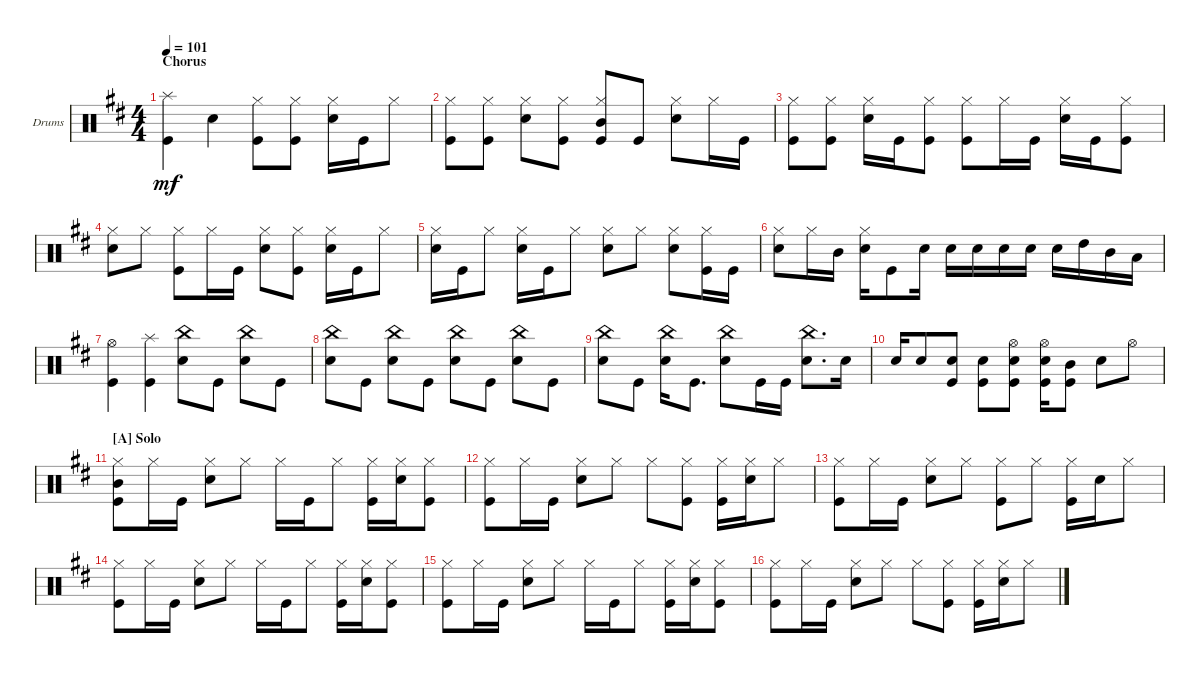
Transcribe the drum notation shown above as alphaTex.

\bracketExtendMode groupsimilarinstruments
\firstSystemTrackNameOrientation horizontal
\otherSystemsTrackNameOrientation horizontal
\track ("Drumkit" "Drums") {instrument percussion}
\staff {score}
\articulation defaults
\ts (4 4)
\section ("" "Chorus")
\tempo 101
\clef neutral
\scale
0.333333
\ks d
("Splash (hit)" "Kick (hit)").4{dy mf} "Snare (hit) 2".4 ("Kick (hit)" "Hi-Hat (closed)").8 ("Kick (hit)" "Hi-Hat (closed)").8 ("Snare (hit) 2" "Hi-Hat (closed)").16 "Kick (hit)".16 "Hi-Hat (closed)".8 |
\scale
0.333333 ("Kick (hit)" "Hi-Hat (closed)").8 ("Kick (hit)" "Hi-Hat (closed)").8 ("Snare (hit) 2" "Hi-Hat (closed)").8 ("Kick (hit)" "Hi-Hat (closed)").8 ("Kick (hit)" "Hi-Hat (closed)" "Mid Tom (hit)").8 "Kick (hit)".8 ("Snare (hit) 2" "Hi-Hat (closed)").8 "Hi-Hat (closed)".16 "Kick (hit)".16 |
\scale
0.333333 ("Kick (hit)" "Hi-Hat (closed)").8 ("Kick (hit)" "Hi-Hat (closed)").8 ("Snare (hit) 2" "Hi-Hat (closed)").16 "Kick (hit)".16 ("Kick (hit)" "Hi-Hat (closed)").8 ("Kick (hit)" "Hi-Hat (closed)").8 "Hi-Hat (closed)".16 "Kick (hit)".16 ("Snare (hit) 2" "Hi-Hat (closed)").16 "Kick (hit)".16 ("Kick (hit)" "Hi-Hat (closed)").8 |
\scale
0.333333 ("Hi-Hat (closed)" "Snare (hit) 2").8 "Hi-Hat (closed)".8 ("Kick (hit)" "Hi-Hat (closed)").8 "Hi-Hat (closed)".16 "Kick (hit)".16 ("Snare (hit) 2" "Hi-Hat (closed)").8 ("Kick (hit)" "Hi-Hat (closed)").8 ("Snare (hit) 2" "Hi-Hat (closed)").16 "Kick (hit)".16 "Hi-Hat (closed)".8 |
\scale
0.333333 ("Snare (hit) 2" "Hi-Hat (closed)").16 "Kick (hit)".16 "Hi-Hat (closed)".8 ("Snare (hit) 2" "Hi-Hat (closed)").16 "Kick (hit)".16 "Hi-Hat (closed)".8 ("Snare (hit) 2" "Hi-Hat (closed)").8 "Hi-Hat (closed)".8 ("Snare (hit) 2" "Hi-Hat (closed)").8 ("Kick (hit)" "Hi-Hat (closed)").16 "Kick (hit)".16 |
\scale
0.333333 ("Snare (hit) 2" "Hi-Hat (closed)").8 "Hi-Hat (closed)".16 "Mid Tom (hit)".16 ("Snare (hit) 2" "Hi-Hat (closed)").16 "Kick (hit)".8 "Snare (hit) 2".16 "Snare (hit) 2".16 "Snare (hit) 2".16 "Snare (hit) 2".16 "Snare (hit) 2".16 "Snare (hit) 2".16 "High Tom (hit)".16 "Mid Tom (hit)".16 "Low Tom (hit)".16 |
\scale
0.333333 ("Hi-Hat (open)" "Kick (hit)").4 ("Splash (hit)" "Kick (hit)").4 ("Snare (hit) 2" "China (hit)").8 "Kick (hit)".8 ("Snare (hit) 2" "China (hit)").8 "Kick (hit)".8 |
\scale
0.333333 ("Snare (hit) 2" "China (hit)").8 "Kick (hit)".8 ("Snare (hit) 2" "China (hit)").8 "Kick (hit)".8 ("Snare (hit) 2" "China (hit)").8 "Kick (hit)".8 ("Snare (hit) 2" "China (hit)").8 "Kick (hit)".8 |
\scale
0.333333 ("Snare (hit) 2" "China (hit)").8 "Kick (hit)".8 ("Snare (hit) 2" "China (hit)").16 "Kick (hit)".8{d} ("Snare (hit) 2" "China (hit)").8 "Kick (hit)".16 "Kick (hit)".16 ("Snare (hit) 2" "China (hit)").8{d} "Snare (hit) 2".16 |
\scale
0.333333 "Snare (hit) 2".16 "Snare (hit) 2".8 ("Snare (hit) 2" "Kick (hit)").8 ("Snare (hit) 2" "Kick (hit)").8 ("Snare (hit) 2" "Kick (hit)" "Hi-Hat (open)").8 ("Kick (hit)" "Snare (hit) 2" "Hi-Hat (open)").16 ("Kick (hit)" "Mid Tom (hit)").8 "Snare (hit) 2".8 "Hi-Hat (open)".8 |
\section ("A" "Solo")
\scale
0.333333 ("Mid Tom (hit)" "Kick (hit)" "Hi-Hat (closed)").8 "Hi-Hat (closed)".16 "Kick (hit)".16 ("Snare (hit) 2" "Hi-Hat (closed)").8 "Hi-Hat (closed)".8 "Hi-Hat (closed)".16 "Kick (hit)".16 "Hi-Hat (closed)".8 ("Kick (hit)" "Hi-Hat (closed)").16 ("Snare (hit) 2" "Hi-Hat (closed)").16 ("Kick (hit)" "Hi-Hat (closed)").8 |
\scale
0.333333 ("Kick (hit)" "Hi-Hat (closed)").8 "Hi-Hat (closed)".16 "Kick (hit)".16 ("Snare (hit) 2" "Hi-Hat (closed)").8 "Hi-Hat (closed)".8 "Hi-Hat (closed)".8 ("Kick (hit)" "Hi-Hat (closed)").8 ("Kick (hit)" "Hi-Hat (closed)").16 ("Snare (hit) 2" "Hi-Hat (closed)").16 "Hi-Hat (closed)".8 |
\scale
0.333333 ("Kick (hit)" "Hi-Hat (closed)").8 "Hi-Hat (closed)".16 "Kick (hit)".16 ("Snare (hit) 2" "Hi-Hat (closed)").8 "Hi-Hat (closed)".8 ("Kick (hit)" "Hi-Hat (closed)").8 "Hi-Hat (closed)".8 ("Kick (hit)" "Hi-Hat (closed)").16 "Snare (hit) 2".16 "Hi-Hat (closed)".8 |
\scale
0.333333 ("Kick (hit)" "Hi-Hat (closed)").8 "Hi-Hat (closed)".16 "Kick (hit)".16 ("Snare (hit) 2" "Hi-Hat (closed)").8 "Hi-Hat (closed)".8 "Hi-Hat (closed)".16 "Kick (hit)".16 "Hi-Hat (closed)".8 ("Kick (hit)" "Hi-Hat (closed)").16 ("Snare (hit) 2" "Hi-Hat (closed)").16 ("Kick (hit)" "Hi-Hat (closed)").8 |
\scale
0.333333 ("Kick (hit)" "Hi-Hat (closed)").8 "Hi-Hat (closed)".16 "Kick (hit)".16 ("Snare (hit) 2" "Hi-Hat (closed)").8 "Hi-Hat (closed)".8 "Hi-Hat (closed)".16 "Kick (hit)".16 "Hi-Hat (closed)".8 ("Kick (hit)" "Hi-Hat (closed)").16 ("Snare (hit) 2" "Hi-Hat (closed)").16 ("Kick (hit)" "Hi-Hat (closed)").8 |
\scale
0.333333 ("Kick (hit)" "Hi-Hat (closed)").8 "Hi-Hat (closed)".16 "Kick (hit)".16 ("Snare (hit) 2" "Hi-Hat (closed)").8 "Hi-Hat (closed)".8 "Hi-Hat (closed)".8 ("Kick (hit)" "Hi-Hat (closed)").8 ("Kick (hit)" "Hi-Hat (closed)").16 ("Snare (hit) 2" "Hi-Hat (closed)").16 "Hi-Hat (closed)".8
